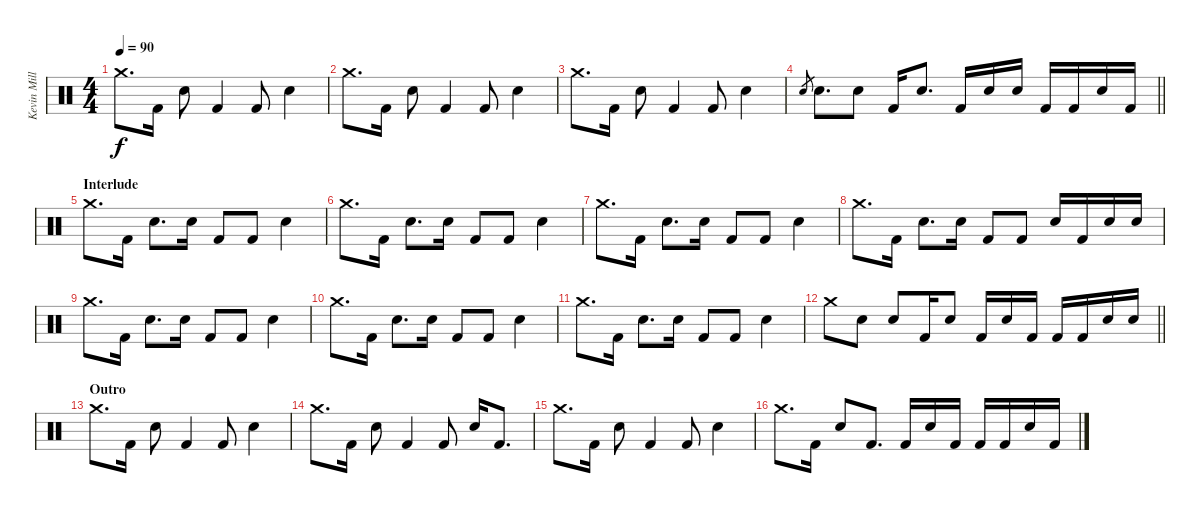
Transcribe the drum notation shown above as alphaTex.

\track ("Kevin Miller (Drums)" "Kevin Mill") {instrument percussion}
\staff {score}
\articulation defaults
\ts (4 4)
\tempo 90
\clef neutral
\ks c "Crash medium (hit)".8{d dy f} "Kick (hit) 2".16 "Electric Snare (hit)".8 "Kick (hit) 2".4 "Kick (hit) 2".8 "Electric Snare (hit)".4
|
"Crash medium (hit)".8{d} "Kick (hit) 2".16 "Electric Snare (hit)".8 "Kick (hit) 2".4 "Kick (hit) 2".8 "Electric Snare (hit)".4 |
"Crash medium (hit)".8{d} "Kick (hit) 2".16 "Electric Snare (hit)".8 "Kick (hit) 2".4 "Kick (hit) 2".8 "Electric Snare (hit)".4 |
\barLineRight lightlight "Electric Snare (hit)".8{gr} "Electric Snare (hit)".8{d} "Electric Snare (hit)".8 "Kick (hit) 2".16 "Electric Snare (hit)".8{d} "Kick (hit) 2".16 "Electric Snare (hit)".16 "Electric Snare (hit)".16 "Kick (hit) 2".16 "Kick (hit) 2".16 "Electric Snare (hit)".16 "Kick (hit) 2".16
|
\section ("" "Interlude")
"Crash medium (hit)".8{d} "Kick (hit) 2".16 "Electric Snare (hit)".8{d} "Electric Snare (hit)".16 "Kick (hit) 2".8 "Kick (hit) 2".8 "Electric Snare (hit)".4 |
"Crash medium (hit)".8{d} "Kick (hit) 2".16 "Electric Snare (hit)".8{d} "Electric Snare (hit)".16 "Kick (hit) 2".8 "Kick (hit) 2".8 "Electric Snare (hit)".4 |
"Crash medium (hit)".8{d} "Kick (hit) 2".16 "Electric Snare (hit)".8{d} "Electric Snare (hit)".16 "Kick (hit) 2".8 "Kick (hit) 2".8 "Electric Snare (hit)".4 |
"Crash medium (hit)".8{d} "Kick (hit) 2".16 "Electric Snare (hit)".8{d} "Electric Snare (hit)".16 "Kick (hit) 2".8 "Kick (hit) 2".8 "Electric Snare (hit)".16 "Kick (hit) 2".16 "Electric Snare (hit)".16 "Electric Snare (hit)".16 |
"Crash medium (hit)".8{d} "Kick (hit) 2".16 "Electric Snare (hit)".8{d} "Electric Snare (hit)".16 "Kick (hit) 2".8 "Kick (hit) 2".8 "Electric Snare (hit)".4 |
"Crash medium (hit)".8{d} "Kick (hit) 2".16 "Electric Snare (hit)".8{d} "Electric Snare (hit)".16 "Kick (hit) 2".8 "Kick (hit) 2".8 "Electric Snare (hit)".4 |
"Crash medium (hit)".8{d} "Kick (hit) 2".16 "Electric Snare (hit)".8{d} "Electric Snare (hit)".16 "Kick (hit) 2".8 "Kick (hit) 2".8 "Electric Snare (hit)".4 |
\barLineRight lightlight "Crash medium (hit)".8 "Electric Snare (hit)".8 "Electric Snare (hit)".8 "Kick (hit) 2".16 "Electric Snare (hit)".8 "Kick (hit) 2".16 "Electric Snare (hit)".16 "Kick (hit) 2".16 "Kick (hit) 2".16 "Kick (hit) 2".16 "Electric Snare (hit)".16 "Electric Snare (hit)".16
|
\section ("" "Outro")
"Crash medium (hit)".8{d} "Kick (hit) 2".16 "Electric Snare (hit)".8 "Kick (hit) 2".4 "Kick (hit) 2".8 "Electric Snare (hit)".4 |
"Crash medium (hit)".8{d} "Kick (hit) 2".16 "Electric Snare (hit)".8 "Kick (hit) 2".4 "Kick (hit) 2".8 "Electric Snare (hit)".16 "Kick (hit) 2".8{d} |
"Crash medium (hit)".8{d} "Kick (hit) 2".16 "Electric Snare (hit)".8 "Kick (hit) 2".4 "Kick (hit) 2".8 "Electric Snare (hit)".4 |
"Crash medium (hit)".8{d} "Kick (hit) 2".16 "Electric Snare (hit)".8 "Kick (hit) 2".8{d} "Kick (hit) 2".16 "Electric Snare (hit)".16 "Kick (hit) 2".16 "Kick (hit) 2".16 "Kick (hit) 2".16 "Electric Snare (hit)".16 "Kick (hit) 2".16
